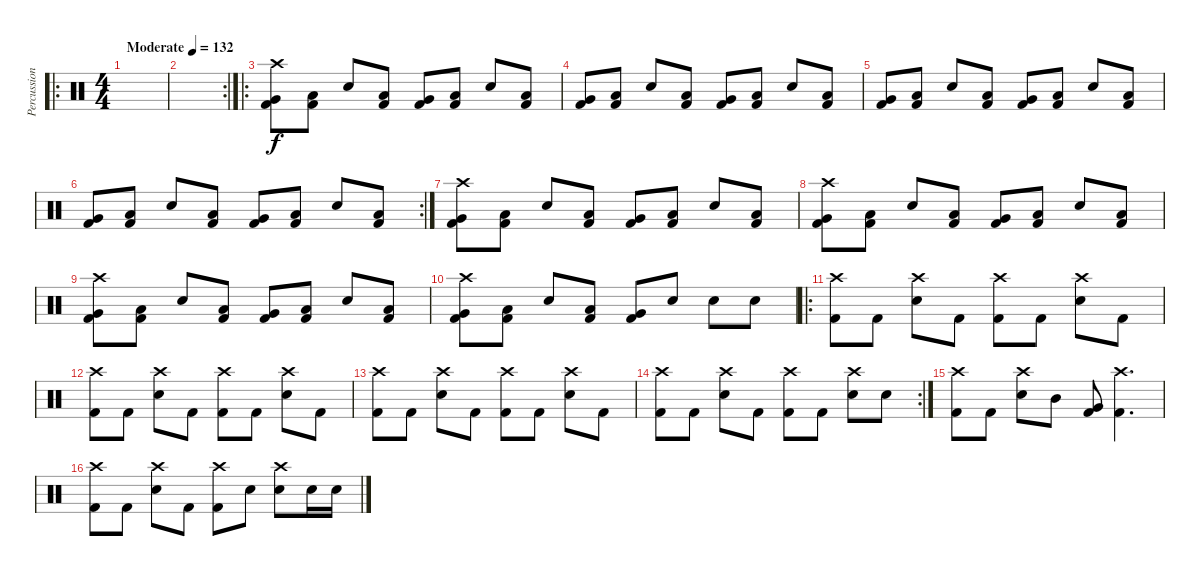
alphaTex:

\track ("Percussion" "Percussion") {instrument percussion}
\staff {score}
\articulation defaults
\ro
\ts (4 4)
\tempo (132 "Moderate")
\clef neutral
\ks c
|
\rc 2
|
\ro
("Crash high (hit)" "Very Low Tom (hit)" "Kick (hit) 2").8 ("Low Floor Tom (hit)" "Kick (hit) 2").8 "Electric Snare (hit)".8 ("Low Floor Tom (hit)" "Kick (hit) 2").8 ("Very Low Tom (hit)" "Kick (hit) 2").8 ("Low Floor Tom (hit)" "Kick (hit) 2").8 "Electric Snare (hit)".8 ("Low Floor Tom (hit)" "Kick (hit) 2").8 |
("Very Low Tom (hit)" "Kick (hit) 2").8 ("Low Floor Tom (hit)" "Kick (hit) 2").8 "Electric Snare (hit)".8 ("Low Floor Tom (hit)" "Kick (hit) 2").8 ("Very Low Tom (hit)" "Kick (hit) 2").8 ("Low Floor Tom (hit)" "Kick (hit) 2").8 "Electric Snare (hit)".8 ("Low Floor Tom (hit)" "Kick (hit) 2").8 |
("Very Low Tom (hit)" "Kick (hit) 2").8 ("Low Floor Tom (hit)" "Kick (hit) 2").8 "Electric Snare (hit)".8 ("Low Floor Tom (hit)" "Kick (hit) 2").8 ("Very Low Tom (hit)" "Kick (hit) 2").8 ("Low Floor Tom (hit)" "Kick (hit) 2").8 "Electric Snare (hit)".8 ("Low Floor Tom (hit)" "Kick (hit) 2").8 |
\rc 2
("Very Low Tom (hit)" "Kick (hit) 2").8 ("Low Floor Tom (hit)" "Kick (hit) 2").8 "Electric Snare (hit)".8 ("Low Floor Tom (hit)" "Kick (hit) 2").8 ("Very Low Tom (hit)" "Kick (hit) 2").8 ("Low Floor Tom (hit)" "Kick (hit) 2").8 "Electric Snare (hit)".8 ("Low Floor Tom (hit)" "Kick (hit) 2").8 |
("Crash high (hit)" "Very Low Tom (hit)" "Kick (hit) 2").8 ("Low Floor Tom (hit)" "Kick (hit) 2").8 "Electric Snare (hit)".8 ("Low Floor Tom (hit)" "Kick (hit) 2").8 ("Very Low Tom (hit)" "Kick (hit) 2").8 ("Low Floor Tom (hit)" "Kick (hit) 2").8 "Electric Snare (hit)".8 ("Low Floor Tom (hit)" "Kick (hit) 2").8 |
("Crash high (hit)" "Very Low Tom (hit)" "Kick (hit) 2").8 ("Low Floor Tom (hit)" "Kick (hit) 2").8 "Electric Snare (hit)".8 ("Low Floor Tom (hit)" "Kick (hit) 2").8 ("Very Low Tom (hit)" "Kick (hit) 2").8 ("Low Floor Tom (hit)" "Kick (hit) 2").8 "Electric Snare (hit)".8 ("Low Floor Tom (hit)" "Kick (hit) 2").8 |
("Crash high (hit)" "Very Low Tom (hit)" "Kick (hit) 2").8 ("Low Floor Tom (hit)" "Kick (hit) 2").8 "Electric Snare (hit)".8 ("Low Floor Tom (hit)" "Kick (hit) 2").8 ("Very Low Tom (hit)" "Kick (hit) 2").8 ("Low Floor Tom (hit)" "Kick (hit) 2").8 "Electric Snare (hit)".8 ("Low Floor Tom (hit)" "Kick (hit) 2").8 |
("Crash high (hit)" "Very Low Tom (hit)" "Kick (hit) 2").8 ("Low Floor Tom (hit)" "Kick (hit) 2").8 "Electric Snare (hit)".8 ("Low Floor Tom (hit)" "Kick (hit) 2").8 ("Very Low Tom (hit)" "Kick (hit) 2").8 "Electric Snare (hit)".8 "Electric Snare (hit)".8 "Electric Snare (hit)".8 |
\ro
("Crash high (hit)" "Kick (hit) 2").8 "Kick (hit) 2".8 ("Crash high (hit)" "Electric Snare (hit)").8 "Kick (hit) 2".8 ("Crash high (hit)" "Kick (hit) 2").8 "Kick (hit) 2".8 ("Crash high (hit)" "Electric Snare (hit)").8 "Kick (hit) 2".8 |
("Crash high (hit)" "Kick (hit) 2").8 "Kick (hit) 2".8 ("Crash high (hit)" "Electric Snare (hit)").8 "Kick (hit) 2".8 ("Crash high (hit)" "Kick (hit) 2").8 "Kick (hit) 2".8 ("Crash high (hit)" "Electric Snare (hit)").8 "Kick (hit) 2".8 |
("Crash high (hit)" "Kick (hit) 2").8 "Kick (hit) 2".8 ("Crash high (hit)" "Electric Snare (hit)").8 "Kick (hit) 2".8 ("Crash high (hit)" "Kick (hit) 2").8 "Kick (hit) 2".8 ("Crash high (hit)" "Electric Snare (hit)").8 "Kick (hit) 2".8 |
\rc 2
("Crash high (hit)" "Kick (hit) 2").8 "Kick (hit) 2".8 ("Crash high (hit)" "Electric Snare (hit)").8 "Kick (hit) 2".8 ("Crash high (hit)" "Kick (hit) 2").8 "Kick (hit) 2".8 ("Crash high (hit)" "Electric Snare (hit)").8 "Electric Snare (hit)".8 |
("Crash high (hit)" "Kick (hit) 2").8 "Kick (hit) 2".8 ("Crash high (hit)" "Electric Snare (hit)").8 "Mid Tom (hit)".8 ("Very Low Tom (hit)" "Kick (hit) 2").8 ("Crash high (hit)" "Kick (hit) 2").4{d} |
("Crash high (hit)" "Kick (hit) 2").8 "Kick (hit) 2".8 ("Crash high (hit)" "Electric Snare (hit)").8 "Kick (hit) 2".8 ("Crash high (hit)" "Kick (hit) 2").8 "Electric Snare (hit)".8 ("Crash high (hit)" "Electric Snare (hit)").8 "Electric Snare (hit)".16 "Electric Snare (hit)".16
